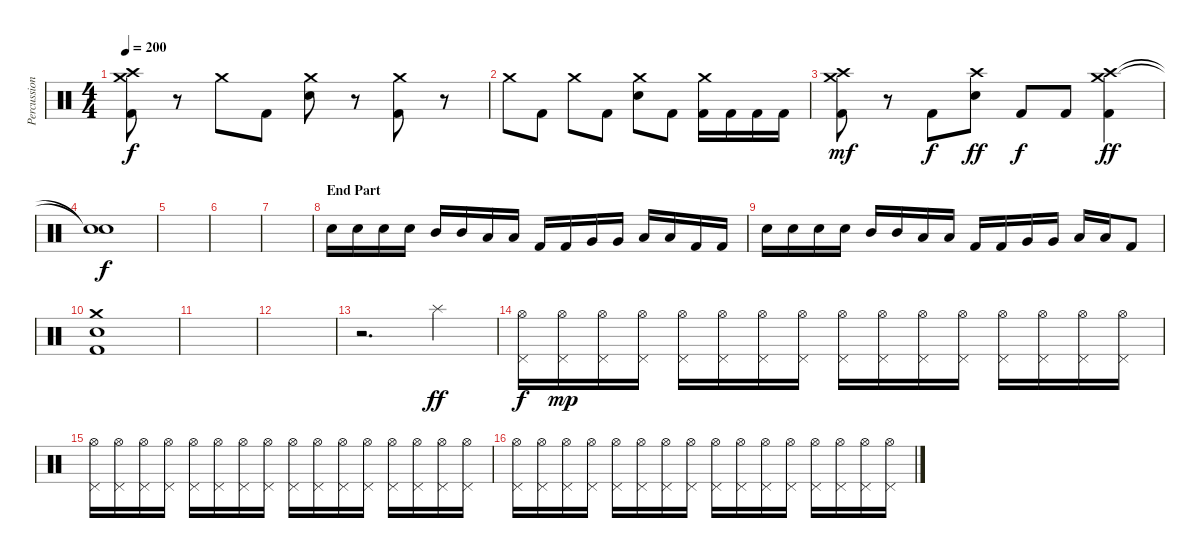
\track ("Percussions" "Percussion") {instrument percussion}
\staff {score}
\articulation defaults
\ts (4 4)
\tempo 200
\clef neutral
\ks c
("Crash high (hit)" "Crash medium (hit)" "Kick (hit) 2").8{dy f} r.8 "Crash medium (hit)".8 "Kick (hit) 2".8 ("Crash medium (hit)" "Electric Snare (hit)").8 r.8 ("Crash medium (hit)" "Kick (hit) 2").8 r.8 |
"Crash medium (hit)".8 "Kick (hit) 2".8 "Crash medium (hit)".8 "Kick (hit) 2".8 ("Crash medium (hit)" "Electric Snare (hit)").8 "Kick (hit) 2".8 ("Crash medium (hit)" "Kick (hit) 2").16 "Kick (hit) 2".16 "Kick (hit) 2".16 "Kick (hit) 2".16 |
("Crash medium (hit)" "Crash high (hit)" "Kick (hit) 2").8{dy mf} r.8 "Kick (hit) 2".8{dy f} ("Crash high (hit)" "Electric Snare (hit)").8{dy ff} "Kick (hit) 2".8{dy f} "Kick (hit) 2".8 ("Crash medium (hit)" "Crash high (hit)" "Kick (hit) 2").4{dy ff} |
("Snare (hit)"{t} "Snare (hit)"{t}).1{dy f} |
|
|
|
\section ("" "End Part")
"Electric Snare (hit)".16 "Electric Snare (hit)".16 "Electric Snare (hit)".16 "Electric Snare (hit)".16 "Mid Tom (hit)".16 "Mid Tom (hit)".16 "Low Tom (hit)".16 "Low Tom (hit)".16 "Kick (hit) 2".16 "Kick (hit) 2".16 "Very Low Tom (hit)".16 "Very Low Tom (hit)".16 "Low Floor Tom (hit)".16 "Low Floor Tom (hit)".16 "Kick (hit) 2".16 "Kick (hit) 2".16 |
"Electric Snare (hit)".16 "Electric Snare (hit)".16 "Electric Snare (hit)".16 "Electric Snare (hit)".16 "Mid Tom (hit)".16 "Mid Tom (hit)".16 "Low Tom (hit)".16 "Low Tom (hit)".16 "Kick (hit) 2".16 "Kick (hit) 2".16 "Very Low Tom (hit)".16 "Very Low Tom (hit)".16 "Low Floor Tom (hit)".16 "Low Floor Tom (hit)".16 "Kick (hit) 2".8 |
("Crash medium (hit)" "Electric Snare (hit)" "Kick (hit) 2").1 |
|
|
r.2{d} "Splash (hit)".4{dy ff} |
("Pedal Hi-Hat (hit)" "Hi-Hat (open)").16{dy f} ("Pedal Hi-Hat (hit)" "Hi-Hat (open)").16{dy mp} ("Pedal Hi-Hat (hit)" "Hi-Hat (open)").16 ("Pedal Hi-Hat (hit)" "Hi-Hat (open)").16 ("Pedal Hi-Hat (hit)" "Hi-Hat (open)").16 ("Pedal Hi-Hat (hit)" "Hi-Hat (open)").16 ("Pedal Hi-Hat (hit)" "Hi-Hat (open)").16 ("Pedal Hi-Hat (hit)" "Hi-Hat (open)").16 ("Pedal Hi-Hat (hit)" "Hi-Hat (open)").16 ("Pedal Hi-Hat (hit)" "Hi-Hat (open)").16 ("Pedal Hi-Hat (hit)" "Hi-Hat (open)").16 ("Pedal Hi-Hat (hit)" "Hi-Hat (open)").16 ("Pedal Hi-Hat (hit)" "Hi-Hat (open)").16 ("Pedal Hi-Hat (hit)" "Hi-Hat (open)").16 ("Pedal Hi-Hat (hit)" "Hi-Hat (open)").16 ("Pedal Hi-Hat (hit)" "Hi-Hat (open)").16 |
("Pedal Hi-Hat (hit)" "Hi-Hat (open)").16 ("Pedal Hi-Hat (hit)" "Hi-Hat (open)").16 ("Pedal Hi-Hat (hit)" "Hi-Hat (open)").16 ("Pedal Hi-Hat (hit)" "Hi-Hat (open)").16 ("Pedal Hi-Hat (hit)" "Hi-Hat (open)").16 ("Pedal Hi-Hat (hit)" "Hi-Hat (open)").16 ("Pedal Hi-Hat (hit)" "Hi-Hat (open)").16 ("Pedal Hi-Hat (hit)" "Hi-Hat (open)").16 ("Pedal Hi-Hat (hit)" "Hi-Hat (open)").16 ("Pedal Hi-Hat (hit)" "Hi-Hat (open)").16 ("Pedal Hi-Hat (hit)" "Hi-Hat (open)").16 ("Pedal Hi-Hat (hit)" "Hi-Hat (open)").16 ("Pedal Hi-Hat (hit)" "Hi-Hat (open)").16 ("Pedal Hi-Hat (hit)" "Hi-Hat (open)").16 ("Pedal Hi-Hat (hit)" "Hi-Hat (open)").16 ("Pedal Hi-Hat (hit)" "Hi-Hat (open)").16 |
("Pedal Hi-Hat (hit)" "Hi-Hat (open)").16 ("Pedal Hi-Hat (hit)" "Hi-Hat (open)").16 ("Pedal Hi-Hat (hit)" "Hi-Hat (open)").16 ("Pedal Hi-Hat (hit)" "Hi-Hat (open)").16 ("Pedal Hi-Hat (hit)" "Hi-Hat (open)").16 ("Pedal Hi-Hat (hit)" "Hi-Hat (open)").16 ("Pedal Hi-Hat (hit)" "Hi-Hat (open)").16 ("Pedal Hi-Hat (hit)" "Hi-Hat (open)").16 ("Pedal Hi-Hat (hit)" "Hi-Hat (open)").16 ("Pedal Hi-Hat (hit)" "Hi-Hat (open)").16 ("Pedal Hi-Hat (hit)" "Hi-Hat (open)").16 ("Pedal Hi-Hat (hit)" "Hi-Hat (open)").16 ("Pedal Hi-Hat (hit)" "Hi-Hat (open)").16 ("Pedal Hi-Hat (hit)" "Hi-Hat (open)").16 ("Pedal Hi-Hat (hit)" "Hi-Hat (open)").16 ("Pedal Hi-Hat (hit)" "Hi-Hat (open)").16
